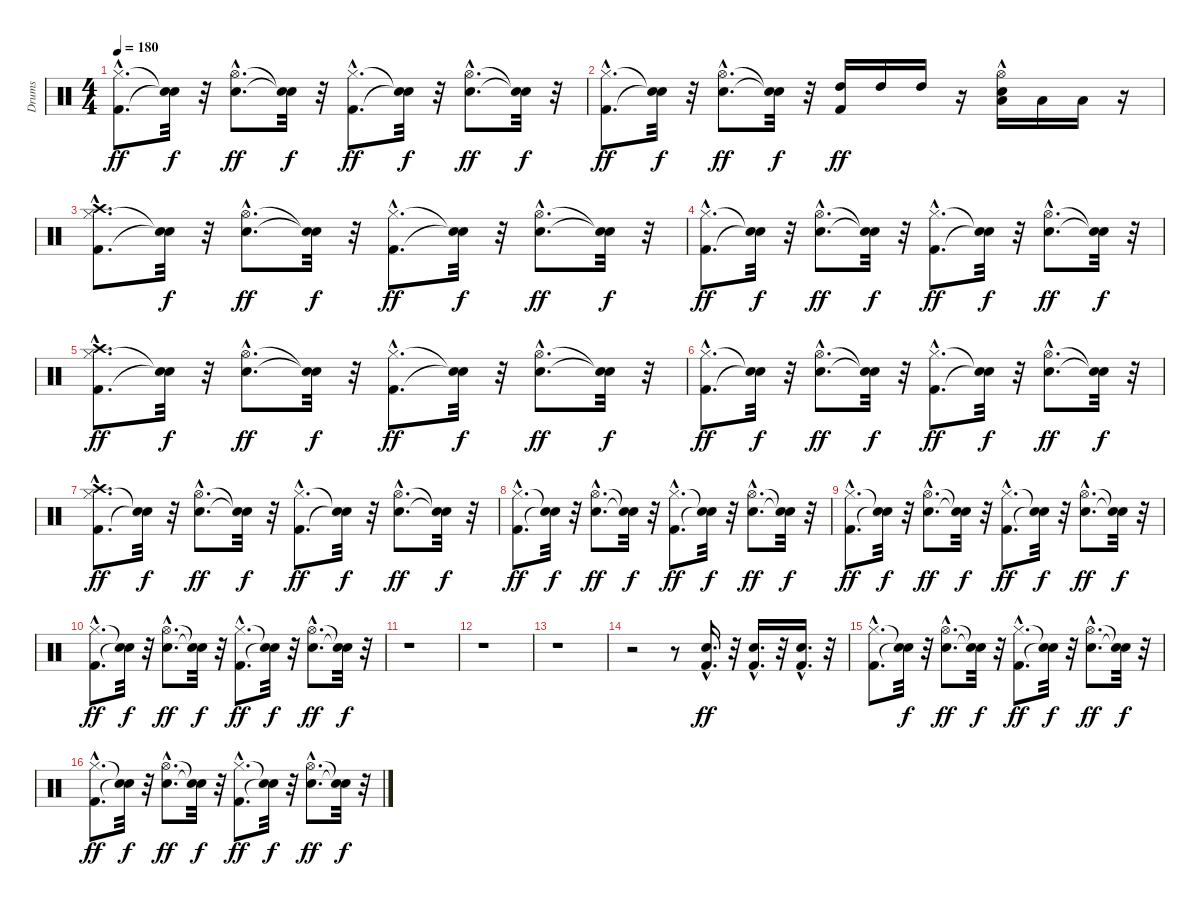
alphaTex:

\track ("Drums" "Drums") {instrument percussion}
\staff {score}
\articulation defaults
\ts (4 4)
\tempo 180
\clef neutral
\ks c
("Kick (hit) 2"{hac} "Hi-Hat (closed)"{hac}).8{d dy ff} ("Snare (hit)"{t} "Snare (hit)"{t}).32{dy f} r.32 ("Snare (hit) 2"{hac} "Hi-Hat (open)"{hac}).8{d dy ff} ("Snare (hit)"{t} "Snare (hit)"{t}).32{dy f} r.32 ("Kick (hit) 2"{hac} "Hi-Hat (closed)"{hac}).8{d dy ff} ("Snare (hit)"{t} "Snare (hit)"{t}).32{dy f} r.32 ("Snare (hit) 2"{hac} "Hi-Hat (open)"{hac}).8{d dy ff} ("Snare (hit)"{t} "Snare (hit)"{t}).32{dy f} r.32 |
("Kick (hit) 2"{hac} "Hi-Hat (closed)"{hac}).8{d dy ff} ("Snare (hit)"{t} "Snare (hit)"{t}).32{dy f} r.32 ("Snare (hit) 2"{hac} "Hi-Hat (open)"{hac}).8{d dy ff} ("Snare (hit)"{t} "Snare (hit)"{t}).32{dy f} r.32 ("High Tom (hit)" "Kick (hit) 2").16{dy ff} "High Tom (hit)".16 "High Tom (hit)".16 r.16 ("Snare (hit) 2"{hac} "Hi-Hat (open)"{hac} "Low Tom (hit)").16 "Low Tom (hit)".16 "Low Tom (hit)".16 r.16 |
("Kick (hit) 2"{hac} "Hi-Hat (closed)"{hac} "Crash high (hit)").8{d} ("Snare (hit)"{t} "Snare (hit)"{t}).32{dy f} r.32 ("Snare (hit) 2"{hac} "Hi-Hat (open)"{hac}).8{d dy ff} ("Snare (hit)"{t} "Snare (hit)"{t}).32{dy f} r.32 ("Kick (hit) 2"{hac} "Hi-Hat (closed)"{hac}).8{d dy ff} ("Snare (hit)"{t} "Snare (hit)"{t}).32{dy f} r.32 ("Snare (hit) 2"{hac} "Hi-Hat (open)"{hac}).8{d dy ff} ("Snare (hit)"{t} "Snare (hit)"{t}).32{dy f} r.32 |
("Kick (hit) 2"{hac} "Hi-Hat (closed)"{hac}).8{d dy ff} ("Snare (hit)"{t} "Snare (hit)"{t}).32{dy f} r.32 ("Snare (hit) 2"{hac} "Hi-Hat (open)"{hac}).8{d dy ff} ("Snare (hit)"{t} "Snare (hit)"{t}).32{dy f} r.32 ("Kick (hit) 2"{hac} "Hi-Hat (closed)"{hac}).8{d dy ff} ("Snare (hit)"{t} "Snare (hit)"{t}).32{dy f} r.32 ("Snare (hit) 2"{hac} "Hi-Hat (open)"{hac}).8{d dy ff} ("Snare (hit)"{t} "Snare (hit)"{t}).32{dy f} r.32 |
("Kick (hit) 2"{hac} "Hi-Hat (closed)"{hac} "Crash high (hit)").8{d dy ff} ("Snare (hit)"{t} "Snare (hit)"{t}).32{dy f} r.32 ("Snare (hit) 2"{hac} "Hi-Hat (open)"{hac}).8{d dy ff} ("Snare (hit)"{t} "Snare (hit)"{t}).32{dy f} r.32 ("Kick (hit) 2"{hac} "Hi-Hat (closed)"{hac}).8{d dy ff} ("Snare (hit)"{t} "Snare (hit)"{t}).32{dy f} r.32 ("Snare (hit) 2"{hac} "Hi-Hat (open)"{hac}).8{d dy ff} ("Snare (hit)"{t} "Snare (hit)"{t}).32{dy f} r.32 |
("Kick (hit) 2"{hac} "Hi-Hat (closed)"{hac}).8{d dy ff} ("Snare (hit)"{t} "Snare (hit)"{t}).32{dy f} r.32 ("Snare (hit) 2"{hac} "Hi-Hat (open)"{hac}).8{d dy ff} ("Snare (hit)"{t} "Snare (hit)"{t}).32{dy f} r.32 ("Kick (hit) 2"{hac} "Hi-Hat (closed)"{hac}).8{d dy ff} ("Snare (hit)"{t} "Snare (hit)"{t}).32{dy f} r.32 ("Snare (hit) 2"{hac} "Hi-Hat (open)"{hac}).8{d dy ff} ("Snare (hit)"{t} "Snare (hit)"{t}).32{dy f} r.32 |
("Kick (hit) 2"{hac} "Hi-Hat (closed)"{hac} "Crash high (hit)").8{d dy ff} ("Snare (hit)"{t} "Snare (hit)"{t}).32{dy f} r.32 ("Snare (hit) 2"{hac} "Hi-Hat (open)"{hac}).8{d dy ff} ("Snare (hit)"{t} "Snare (hit)"{t}).32{dy f} r.32 ("Kick (hit) 2"{hac} "Hi-Hat (closed)"{hac}).8{d dy ff} ("Snare (hit)"{t} "Snare (hit)"{t}).32{dy f} r.32 ("Snare (hit) 2"{hac} "Hi-Hat (open)"{hac}).8{d dy ff} ("Snare (hit)"{t} "Snare (hit)"{t}).32{dy f} r.32 |
("Kick (hit) 2"{hac} "Hi-Hat (closed)"{hac}).8{d dy ff} ("Snare (hit)"{t} "Snare (hit)"{t}).32{dy f} r.32 ("Snare (hit) 2"{hac} "Hi-Hat (open)"{hac}).8{d dy ff} ("Snare (hit)"{t} "Snare (hit)"{t}).32{dy f} r.32 ("Kick (hit) 2"{hac} "Hi-Hat (closed)"{hac}).8{d dy ff} ("Snare (hit)"{t} "Snare (hit)"{t}).32{dy f} r.32 ("Snare (hit) 2"{hac} "Hi-Hat (open)"{hac}).8{d dy ff} ("Snare (hit)"{t} "Snare (hit)"{t}).32{dy f} r.32 |
("Kick (hit) 2"{hac} "Hi-Hat (closed)"{hac}).8{d dy ff} ("Snare (hit)"{t} "Snare (hit)"{t}).32{dy f} r.32 ("Snare (hit) 2"{hac} "Hi-Hat (open)"{hac}).8{d dy ff} ("Snare (hit)"{t} "Snare (hit)"{t}).32{dy f} r.32 ("Kick (hit) 2"{hac} "Hi-Hat (closed)"{hac}).8{d dy ff} ("Snare (hit)"{t} "Snare (hit)"{t}).32{dy f} r.32 ("Snare (hit) 2"{hac} "Hi-Hat (open)"{hac}).8{d dy ff} ("Snare (hit)"{t} "Snare (hit)"{t}).32{dy f} r.32 |
("Kick (hit) 2"{hac} "Hi-Hat (closed)"{hac}).8{d dy ff} ("Snare (hit)"{t} "Snare (hit)"{t}).32{dy f} r.32 ("Snare (hit) 2"{hac} "Hi-Hat (open)"{hac}).8{d dy ff} ("Snare (hit)"{t} "Snare (hit)"{t}).32{dy f} r.32 ("Kick (hit) 2"{hac} "Hi-Hat (closed)"{hac}).8{d dy ff} ("Snare (hit)"{t} "Snare (hit)"{t}).32{dy f} r.32 ("Snare (hit) 2"{hac} "Hi-Hat (open)"{hac}).8{d dy ff} ("Snare (hit)"{t} "Snare (hit)"{t}).32{dy f} r.32 |
r.1 |
r.1 |
r.1 |
r.2 r.8 ("Kick (hit) 2"{hac} "Snare (hit) 2"{hac}).16{d dy ff} r.32 ("Kick (hit) 2"{hac} "Snare (hit) 2"{hac}).16{d} r.32 ("Kick (hit) 2"{hac} "Snare (hit) 2"{hac}).16{d} r.32 |
("Kick (hit) 2"{hac} "Hi-Hat (closed)"{hac}).8{d} ("Snare (hit)"{t} "Snare (hit)"{t}).32{dy f} r.32 ("Snare (hit) 2"{hac} "Hi-Hat (open)"{hac}).8{d dy ff} ("Snare (hit)"{t} "Snare (hit)"{t}).32{dy f} r.32 ("Kick (hit) 2"{hac} "Hi-Hat (closed)"{hac}).8{d dy ff} ("Snare (hit)"{t} "Snare (hit)"{t}).32{dy f} r.32 ("Snare (hit) 2"{hac} "Hi-Hat (open)"{hac}).8{d dy ff} ("Snare (hit)"{t} "Snare (hit)"{t}).32{dy f} r.32 |
("Kick (hit) 2"{hac} "Hi-Hat (closed)"{hac}).8{d dy ff} ("Snare (hit)"{t} "Snare (hit)"{t}).32{dy f} r.32 ("Snare (hit) 2"{hac} "Hi-Hat (open)"{hac}).8{d dy ff} ("Snare (hit)"{t} "Snare (hit)"{t}).32{dy f} r.32 ("Kick (hit) 2"{hac} "Hi-Hat (closed)"{hac}).8{d dy ff} ("Snare (hit)"{t} "Snare (hit)"{t}).32{dy f} r.32 ("Snare (hit) 2"{hac} "Hi-Hat (open)"{hac}).8{d dy ff} ("Snare (hit)"{t} "Snare (hit)"{t}).32{dy f} r.32
